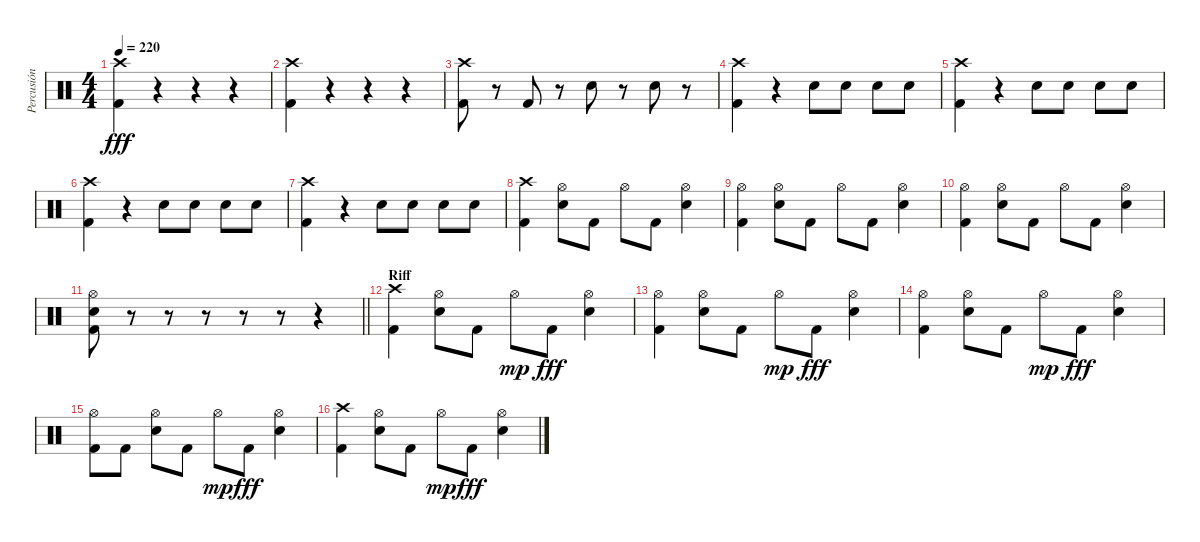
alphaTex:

\track ("Percusión" "Percusión") {instrument percussion}
\staff {score}
\articulation defaults
\ts (4 4)
\tempo 220
\clef neutral
\ks c
("Crash high (hit)" "Kick (hit) 2").4{dy fff} r.4 r.4 r.4 |
("Crash high (hit)" "Kick (hit) 2").4 r.4 r.4 r.4 |
("Crash high (hit)" "Kick (hit) 2").8 r.8 "Kick (hit) 2".8 r.8 "Snare (hit) 2".8 r.8 "Snare (hit) 2".8 r.8 |
("Crash high (hit)" "Kick (hit) 2").4 r.4 "Snare (hit) 2".8 "Snare (hit) 2".8 "Snare (hit) 2".8 "Snare (hit) 2".8 |
("Crash high (hit)" "Kick (hit) 2").4 r.4 "Snare (hit) 2".8 "Snare (hit) 2".8 "Snare (hit) 2".8 "Snare (hit) 2".8 |
("Crash high (hit)" "Kick (hit) 2").4 r.4 "Snare (hit) 2".8 "Snare (hit) 2".8 "Snare (hit) 2".8 "Snare (hit) 2".8 |
("Crash high (hit)" "Kick (hit) 2").4 r.4 "Snare (hit) 2".8 "Snare (hit) 2".8 "Snare (hit) 2".8 "Snare (hit) 2".8 |
("Crash high (hit)" "Kick (hit) 2").4 ("Hi-Hat (open)" "Snare (hit) 2").8 "Kick (hit) 2".8 "Hi-Hat (open)".8 "Kick (hit) 2".8 ("Hi-Hat (open)" "Snare (hit) 2").4 |
("Hi-Hat (open)" "Kick (hit) 2").4 ("Hi-Hat (open)" "Snare (hit) 2").8 "Kick (hit) 2".8 "Hi-Hat (open)".8 "Kick (hit) 2".8 ("Hi-Hat (open)" "Snare (hit) 2").4 |
("Hi-Hat (open)" "Kick (hit) 2").4 ("Hi-Hat (open)" "Snare (hit) 2").8 "Kick (hit) 2".8 "Hi-Hat (open)".8 "Kick (hit) 2".8 ("Hi-Hat (open)" "Snare (hit) 2").4 |
\barLineRight lightlight
("Hi-Hat (open)" "Snare (hit) 2" "Kick (hit) 2").8 r.8 r.8 r.8 r.8 r.8 r.4 |
\section ("" "Riff")
("Crash high (hit)" "Kick (hit) 2").4 ("Hi-Hat (open)" "Snare (hit) 2").8 "Kick (hit) 2".8 "Hi-Hat (open)".8{dy mp} "Kick (hit) 2".8{dy fff} ("Hi-Hat (open)" "Snare (hit) 2").4 |
("Hi-Hat (open)" "Kick (hit) 2").4 ("Hi-Hat (open)" "Snare (hit) 2").8 "Kick (hit) 2".8 "Hi-Hat (open)".8{dy mp} "Kick (hit) 2".8{dy fff} ("Hi-Hat (open)" "Snare (hit) 2").4 |
("Hi-Hat (open)" "Kick (hit) 2").4 ("Hi-Hat (open)" "Snare (hit) 2").8 "Kick (hit) 2".8 "Hi-Hat (open)".8{dy mp} "Kick (hit) 2".8{dy fff} ("Hi-Hat (open)" "Snare (hit) 2").4 |
("Hi-Hat (open)" "Kick (hit) 2").8 "Kick (hit) 2".8 ("Hi-Hat (open)" "Snare (hit) 2").8 "Kick (hit) 2".8 "Hi-Hat (open)".8{dy mp} "Kick (hit) 2".8{dy fff} ("Hi-Hat (open)" "Snare (hit) 2").4 |
("Crash high (hit)" "Kick (hit) 2").4 ("Hi-Hat (open)" "Snare (hit) 2").8 "Kick (hit) 2".8 "Hi-Hat (open)".8{dy mp} "Kick (hit) 2".8{dy fff} ("Hi-Hat (open)" "Snare (hit) 2").4
